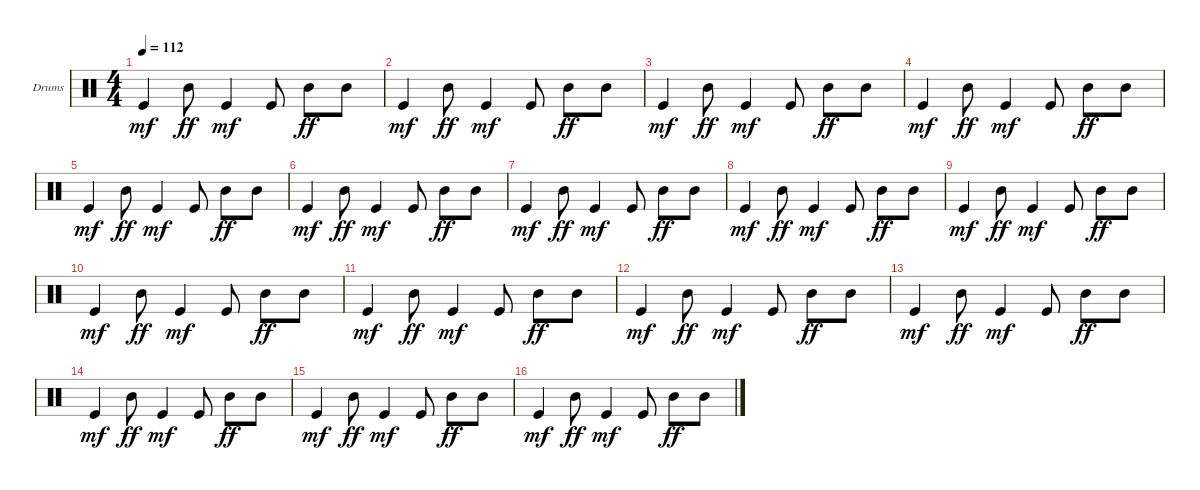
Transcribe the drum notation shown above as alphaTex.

\defaultSystemsLayout 4
\bracketExtendMode groupsimilarinstruments
\firstSystemTrackNameOrientation horizontal
\otherSystemsTrackNameOrientation horizontal
\track ("Drumkit" "Drums") {instrument percussion}
\staff {score}
\articulation defaults
\ts (4 4)
\tempo 112
\clef neutral
\scale
0.973518
\ks c "Kick (hit)".4{dy mf} "Mid Tom (hit)".8{dy ff} "Kick (hit)".4{dy mf} "Kick (hit)".8 "Mid Tom (hit)".8{dy ff} "Mid Tom (hit)".8
|
\scale
0.973518 "Kick (hit)".4{dy mf} "Mid Tom (hit)".8{dy ff} "Kick (hit)".4{dy mf} "Kick (hit)".8 "Mid Tom (hit)".8{dy ff} "Mid Tom (hit)".8 |
\scale
1.07945 "Kick (hit)".4{dy mf} "Mid Tom (hit)".8{dy ff} "Kick (hit)".4{dy mf} "Kick (hit)".8 "Mid Tom (hit)".8{dy ff} "Mid Tom (hit)".8 |
\scale
0.973518 "Kick (hit)".4{dy mf} "Mid Tom (hit)".8{dy ff} "Kick (hit)".4{dy mf} "Kick (hit)".8 "Mid Tom (hit)".8{dy ff} "Mid Tom (hit)".8 |
\scale
0.973518 "Kick (hit)".4{dy mf} "Mid Tom (hit)".8{dy ff} "Kick (hit)".4{dy mf} "Kick (hit)".8 "Mid Tom (hit)".8{dy ff} "Mid Tom (hit)".8 |
\scale
0.973518 "Kick (hit)".4{dy mf} "Mid Tom (hit)".8{dy ff} "Kick (hit)".4{dy mf} "Kick (hit)".8 "Mid Tom (hit)".8{dy ff} "Mid Tom (hit)".8 |
\scale
1.07945 "Kick (hit)".4{dy mf} "Mid Tom (hit)".8{dy ff} "Kick (hit)".4{dy mf} "Kick (hit)".8 "Mid Tom (hit)".8{dy ff} "Mid Tom (hit)".8 |
\scale
0.973518 "Kick (hit)".4{dy mf} "Mid Tom (hit)".8{dy ff} "Kick (hit)".4{dy mf} "Kick (hit)".8 "Mid Tom (hit)".8{dy ff} "Mid Tom (hit)".8 |
\scale
0.973518 "Kick (hit)".4{dy mf} "Mid Tom (hit)".8{dy ff} "Kick (hit)".4{dy mf} "Kick (hit)".8 "Mid Tom (hit)".8{dy ff} "Mid Tom (hit)".8 |
\scale
0.973518 "Kick (hit)".4{dy mf} "Mid Tom (hit)".8{dy ff} "Kick (hit)".4{dy mf} "Kick (hit)".8 "Mid Tom (hit)".8{dy ff} "Mid Tom (hit)".8 |
\scale
1.07945 "Kick (hit)".4{dy mf} "Mid Tom (hit)".8{dy ff} "Kick (hit)".4{dy mf} "Kick (hit)".8 "Mid Tom (hit)".8{dy ff} "Mid Tom (hit)".8 |
\scale
0.973518 "Kick (hit)".4{dy mf} "Mid Tom (hit)".8{dy ff} "Kick (hit)".4{dy mf} "Kick (hit)".8 "Mid Tom (hit)".8{dy ff} "Mid Tom (hit)".8 |
\scale
0.973518 "Kick (hit)".4{dy mf} "Mid Tom (hit)".8{dy ff} "Kick (hit)".4{dy mf} "Kick (hit)".8 "Mid Tom (hit)".8{dy ff} "Mid Tom (hit)".8 |
\scale
0.973518 "Kick (hit)".4{dy mf} "Mid Tom (hit)".8{dy ff} "Kick (hit)".4{dy mf} "Kick (hit)".8 "Mid Tom (hit)".8{dy ff} "Mid Tom (hit)".8 |
\scale
1.07945 "Kick (hit)".4{dy mf} "Mid Tom (hit)".8{dy ff} "Kick (hit)".4{dy mf} "Kick (hit)".8 "Mid Tom (hit)".8{dy ff} "Mid Tom (hit)".8 |
\scale
0.973518 "Kick (hit)".4{dy mf} "Mid Tom (hit)".8{dy ff} "Kick (hit)".4{dy mf} "Kick (hit)".8 "Mid Tom (hit)".8{dy ff} "Mid Tom (hit)".8
